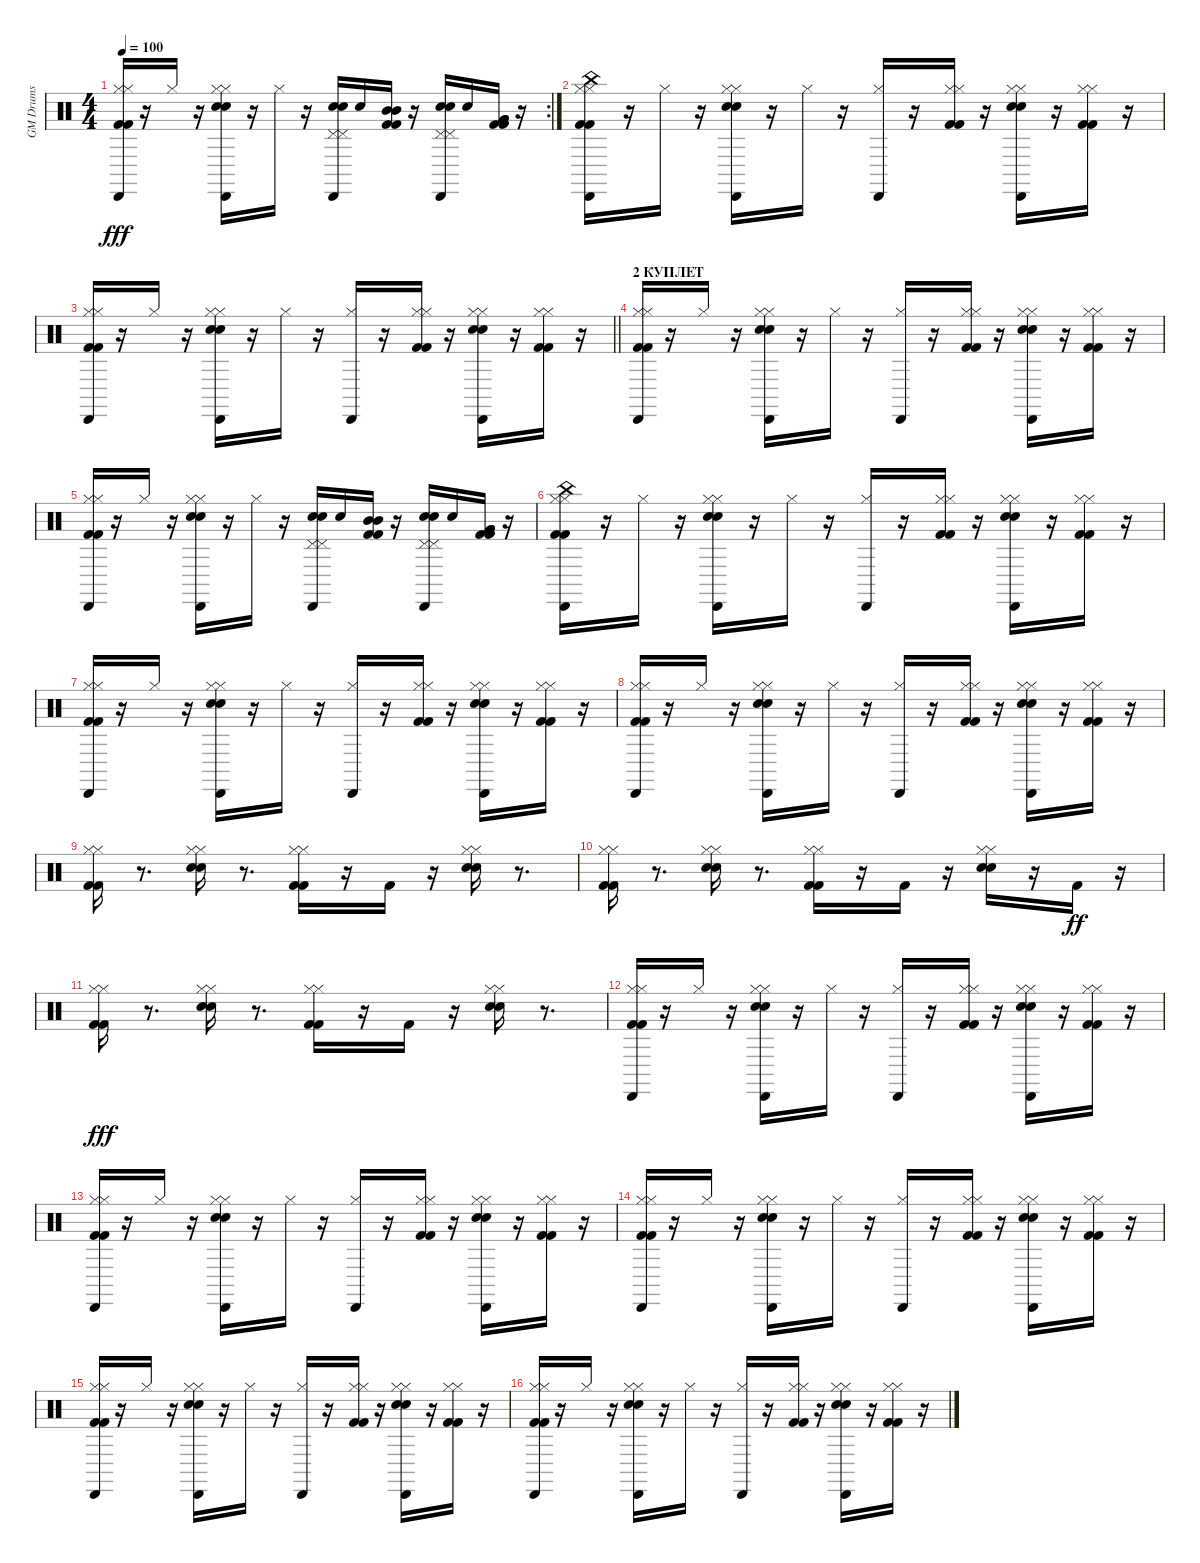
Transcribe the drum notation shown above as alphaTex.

\track ("GM Drums" "GM Drums") {instrument percussion}
\staff {score}
\articulation defaults
\rc 2
\ts (4 4)
\tempo 100
\clef neutral
\ks c
("Kick (hit) 2" "Kick (hit) 2" "Hi-Hat (closed)" "Hi-Hat (closed)" "Cabasa (hit)").16{dy fff} r.16 "Hi-Hat (closed)".16 r.16 ("Snare (hit) 2" "Snare (hit) 2" "Hi-Hat (closed)" "Hi-Hat (closed)" "Cabasa (hit)").16 r.16 "Hi-Hat (closed)".16 r.16 ("Snare (hit) 2" "Snare (hit) 2" "Pedal Hi-Hat (hit)" "Pedal Hi-Hat (hit)" "Cabasa (hit)").16 "Snare (hit) 2".16 ("Kick (hit) 2" "Kick (hit) 2" "Mid Tom (hit)" "Mid Tom (hit)").16 r.16 ("Snare (hit) 2" "Snare (hit) 2" "Pedal Hi-Hat (hit)" "Pedal Hi-Hat (hit)" "Cabasa (hit)").16 "Snare (hit) 2".16 ("Kick (hit) 2" "Kick (hit) 2" "Very Low Tom (hit)" "Very Low Tom (hit)").16 r.16 |
("Kick (hit) 2" "Kick (hit) 2" "Hi-Hat (closed)" "Hi-Hat (closed)" "China (hit)" "Cabasa (hit)").16 r.16 "Hi-Hat (closed)".16 r.16 ("Snare (hit) 2" "Snare (hit) 2" "Hi-Hat (closed)" "Hi-Hat (closed)" "Cabasa (hit)").16 r.16 "Hi-Hat (closed)".16 r.16 ("Hi-Hat (closed)" "Cabasa (hit)").16 r.16 ("Kick (hit) 2" "Kick (hit) 2" "Hi-Hat (closed)" "Hi-Hat (closed)").16 r.16 ("Snare (hit) 2" "Snare (hit) 2" "Hi-Hat (closed)" "Hi-Hat (closed)" "Cabasa (hit)").16 r.16 ("Kick (hit) 2" "Kick (hit) 2" "Hi-Hat (closed)" "Hi-Hat (closed)").16 r.16 |
\barLineRight lightlight
("Kick (hit) 2" "Kick (hit) 2" "Hi-Hat (closed)" "Hi-Hat (closed)" "Cabasa (hit)").16 r.16 "Hi-Hat (closed)".16 r.16 ("Snare (hit) 2" "Snare (hit) 2" "Hi-Hat (closed)" "Hi-Hat (closed)" "Cabasa (hit)").16 r.16 "Hi-Hat (closed)".16 r.16 ("Hi-Hat (closed)" "Cabasa (hit)").16 r.16 ("Kick (hit) 2" "Kick (hit) 2" "Hi-Hat (closed)" "Hi-Hat (closed)").16 r.16 ("Snare (hit) 2" "Snare (hit) 2" "Hi-Hat (closed)" "Hi-Hat (closed)" "Cabasa (hit)").16 r.16 ("Kick (hit) 2" "Kick (hit) 2" "Hi-Hat (closed)" "Hi-Hat (closed)").16 r.16 |
\section ("" "2 КУПЛЕТ")
("Kick (hit) 2" "Kick (hit) 2" "Hi-Hat (closed)" "Hi-Hat (closed)" "Cabasa (hit)").16 r.16 "Hi-Hat (closed)".16 r.16 ("Snare (hit) 2" "Snare (hit) 2" "Hi-Hat (closed)" "Hi-Hat (closed)" "Cabasa (hit)").16 r.16 "Hi-Hat (closed)".16 r.16 ("Hi-Hat (closed)" "Cabasa (hit)").16 r.16 ("Kick (hit) 2" "Kick (hit) 2" "Hi-Hat (closed)" "Hi-Hat (closed)").16 r.16 ("Snare (hit) 2" "Snare (hit) 2" "Hi-Hat (closed)" "Hi-Hat (closed)" "Cabasa (hit)").16 r.16 ("Kick (hit) 2" "Kick (hit) 2" "Hi-Hat (closed)" "Hi-Hat (closed)").16 r.16 |
("Kick (hit) 2" "Kick (hit) 2" "Hi-Hat (closed)" "Hi-Hat (closed)" "Cabasa (hit)").16 r.16 "Hi-Hat (closed)".16 r.16 ("Snare (hit) 2" "Snare (hit) 2" "Hi-Hat (closed)" "Hi-Hat (closed)" "Cabasa (hit)").16 r.16 "Hi-Hat (closed)".16 r.16 ("Snare (hit) 2" "Snare (hit) 2" "Pedal Hi-Hat (hit)" "Pedal Hi-Hat (hit)" "Cabasa (hit)").16 "Snare (hit) 2".16 ("Kick (hit) 2" "Kick (hit) 2" "Mid Tom (hit)" "Mid Tom (hit)").16 r.16 ("Snare (hit) 2" "Snare (hit) 2" "Pedal Hi-Hat (hit)" "Pedal Hi-Hat (hit)" "Cabasa (hit)").16 "Snare (hit) 2".16 ("Kick (hit) 2" "Kick (hit) 2" "Very Low Tom (hit)" "Very Low Tom (hit)").16 r.16 |
("Kick (hit) 2" "Kick (hit) 2" "Hi-Hat (closed)" "Hi-Hat (closed)" "China (hit)" "Cabasa (hit)").16 r.16 "Hi-Hat (closed)".16 r.16 ("Snare (hit) 2" "Snare (hit) 2" "Hi-Hat (closed)" "Hi-Hat (closed)" "Cabasa (hit)").16 r.16 "Hi-Hat (closed)".16 r.16 ("Hi-Hat (closed)" "Cabasa (hit)").16 r.16 ("Kick (hit) 2" "Kick (hit) 2" "Hi-Hat (closed)" "Hi-Hat (closed)").16 r.16 ("Snare (hit) 2" "Snare (hit) 2" "Hi-Hat (closed)" "Hi-Hat (closed)" "Cabasa (hit)").16 r.16 ("Kick (hit) 2" "Kick (hit) 2" "Hi-Hat (closed)" "Hi-Hat (closed)").16 r.16 |
("Kick (hit) 2" "Kick (hit) 2" "Hi-Hat (closed)" "Hi-Hat (closed)" "Cabasa (hit)").16 r.16 "Hi-Hat (closed)".16 r.16 ("Snare (hit) 2" "Snare (hit) 2" "Hi-Hat (closed)" "Hi-Hat (closed)" "Cabasa (hit)").16 r.16 "Hi-Hat (closed)".16 r.16 ("Hi-Hat (closed)" "Cabasa (hit)").16 r.16 ("Kick (hit) 2" "Kick (hit) 2" "Hi-Hat (closed)" "Hi-Hat (closed)").16 r.16 ("Snare (hit) 2" "Snare (hit) 2" "Hi-Hat (closed)" "Hi-Hat (closed)" "Cabasa (hit)").16 r.16 ("Kick (hit) 2" "Kick (hit) 2" "Hi-Hat (closed)" "Hi-Hat (closed)").16 r.16 |
("Kick (hit) 2" "Kick (hit) 2" "Hi-Hat (closed)" "Hi-Hat (closed)" "Cabasa (hit)").16 r.16 "Hi-Hat (closed)".16 r.16 ("Snare (hit) 2" "Snare (hit) 2" "Hi-Hat (closed)" "Hi-Hat (closed)" "Cabasa (hit)").16 r.16 "Hi-Hat (closed)".16 r.16 ("Hi-Hat (closed)" "Cabasa (hit)").16 r.16 ("Kick (hit) 2" "Kick (hit) 2" "Hi-Hat (closed)" "Hi-Hat (closed)").16 r.16 ("Snare (hit) 2" "Snare (hit) 2" "Hi-Hat (closed)" "Hi-Hat (closed)" "Cabasa (hit)").16 r.16 ("Kick (hit) 2" "Kick (hit) 2" "Hi-Hat (closed)" "Hi-Hat (closed)").16 r.16 |
("Kick (hit) 2" "Kick (hit) 2" "Hi-Hat (closed)" "Hi-Hat (closed)").16 r.8{d} ("Snare (hit) 2" "Snare (hit) 2" "Hi-Hat (closed)" "Hi-Hat (closed)").16 r.8{d} ("Kick (hit) 2" "Kick (hit) 2" "Hi-Hat (closed)" "Hi-Hat (closed)").16 r.16 "Kick (hit) 2".16 r.16 ("Snare (hit) 2" "Snare (hit) 2" "Hi-Hat (closed)" "Hi-Hat (closed)").16 r.8{d} |
("Kick (hit) 2" "Kick (hit) 2" "Hi-Hat (closed)" "Hi-Hat (closed)").16 r.8{d} ("Snare (hit) 2" "Snare (hit) 2" "Hi-Hat (closed)" "Hi-Hat (closed)").16 r.8{d} ("Kick (hit) 2" "Kick (hit) 2" "Hi-Hat (closed)" "Hi-Hat (closed)").16 r.16 "Kick (hit) 2".16 r.16 ("Snare (hit) 2" "Snare (hit) 2" "Hi-Hat (closed)" "Hi-Hat (closed)").16 r.16 "Kick (hit) 2".16{dy ff} r.16 |
("Kick (hit) 2" "Kick (hit) 2" "Hi-Hat (closed)" "Hi-Hat (closed)").16{dy fff} r.8{d} ("Snare (hit) 2" "Snare (hit) 2" "Hi-Hat (closed)" "Hi-Hat (closed)").16 r.8{d} ("Kick (hit) 2" "Kick (hit) 2" "Hi-Hat (closed)" "Hi-Hat (closed)").16 r.16 "Kick (hit) 2".16 r.16 ("Snare (hit) 2" "Snare (hit) 2" "Hi-Hat (closed)" "Hi-Hat (closed)").16 r.8{d} |
("Kick (hit) 2" "Kick (hit) 2" "Hi-Hat (closed)" "Hi-Hat (closed)" "Cabasa (hit)").16 r.16 "Hi-Hat (closed)".16 r.16 ("Snare (hit) 2" "Snare (hit) 2" "Hi-Hat (closed)" "Hi-Hat (closed)" "Cabasa (hit)").16 r.16 "Hi-Hat (closed)".16 r.16 ("Hi-Hat (closed)" "Cabasa (hit)").16 r.16 ("Kick (hit) 2" "Kick (hit) 2" "Hi-Hat (closed)" "Hi-Hat (closed)").16 r.16 ("Snare (hit) 2" "Snare (hit) 2" "Hi-Hat (closed)" "Hi-Hat (closed)" "Cabasa (hit)").16 r.16 ("Kick (hit) 2" "Kick (hit) 2" "Hi-Hat (closed)" "Hi-Hat (closed)").16 r.16 |
("Kick (hit) 2" "Kick (hit) 2" "Hi-Hat (closed)" "Hi-Hat (closed)" "Cabasa (hit)").16 r.16 "Hi-Hat (closed)".16 r.16 ("Snare (hit) 2" "Snare (hit) 2" "Hi-Hat (closed)" "Hi-Hat (closed)" "Cabasa (hit)").16 r.16 "Hi-Hat (closed)".16 r.16 ("Hi-Hat (closed)" "Cabasa (hit)").16 r.16 ("Kick (hit) 2" "Kick (hit) 2" "Hi-Hat (closed)" "Hi-Hat (closed)").16 r.16 ("Snare (hit) 2" "Snare (hit) 2" "Hi-Hat (closed)" "Hi-Hat (closed)" "Cabasa (hit)").16 r.16 ("Kick (hit) 2" "Kick (hit) 2" "Hi-Hat (closed)" "Hi-Hat (closed)").16 r.16 |
("Kick (hit) 2" "Kick (hit) 2" "Hi-Hat (closed)" "Hi-Hat (closed)" "Cabasa (hit)").16 r.16 "Hi-Hat (closed)".16 r.16 ("Snare (hit) 2" "Snare (hit) 2" "Hi-Hat (closed)" "Hi-Hat (closed)" "Cabasa (hit)").16 r.16 "Hi-Hat (closed)".16 r.16 ("Hi-Hat (closed)" "Cabasa (hit)").16 r.16 ("Kick (hit) 2" "Kick (hit) 2" "Hi-Hat (closed)" "Hi-Hat (closed)").16 r.16 ("Snare (hit) 2" "Snare (hit) 2" "Hi-Hat (closed)" "Hi-Hat (closed)" "Cabasa (hit)").16 r.16 ("Kick (hit) 2" "Kick (hit) 2" "Hi-Hat (closed)" "Hi-Hat (closed)").16 r.16 |
("Kick (hit) 2" "Kick (hit) 2" "Hi-Hat (closed)" "Hi-Hat (closed)" "Cabasa (hit)").16 r.16 "Hi-Hat (closed)".16 r.16 ("Snare (hit) 2" "Snare (hit) 2" "Hi-Hat (closed)" "Hi-Hat (closed)" "Cabasa (hit)").16 r.16 "Hi-Hat (closed)".16 r.16 ("Hi-Hat (closed)" "Cabasa (hit)").16 r.16 ("Kick (hit) 2" "Kick (hit) 2" "Hi-Hat (closed)" "Hi-Hat (closed)").16 r.16 ("Snare (hit) 2" "Snare (hit) 2" "Hi-Hat (closed)" "Hi-Hat (closed)" "Cabasa (hit)").16 r.16 ("Kick (hit) 2" "Kick (hit) 2" "Hi-Hat (closed)" "Hi-Hat (closed)").16 r.16 |
("Kick (hit) 2" "Kick (hit) 2" "Hi-Hat (closed)" "Hi-Hat (closed)" "Cabasa (hit)").16 r.16 "Hi-Hat (closed)".16 r.16 ("Snare (hit) 2" "Snare (hit) 2" "Hi-Hat (closed)" "Hi-Hat (closed)" "Cabasa (hit)").16 r.16 "Hi-Hat (closed)".16 r.16 ("Hi-Hat (closed)" "Cabasa (hit)").16 r.16 ("Kick (hit) 2" "Kick (hit) 2" "Hi-Hat (closed)" "Hi-Hat (closed)").16 r.16 ("Snare (hit) 2" "Snare (hit) 2" "Hi-Hat (closed)" "Hi-Hat (closed)" "Cabasa (hit)").16 r.16 ("Kick (hit) 2" "Kick (hit) 2" "Hi-Hat (closed)" "Hi-Hat (closed)").16 r.16
